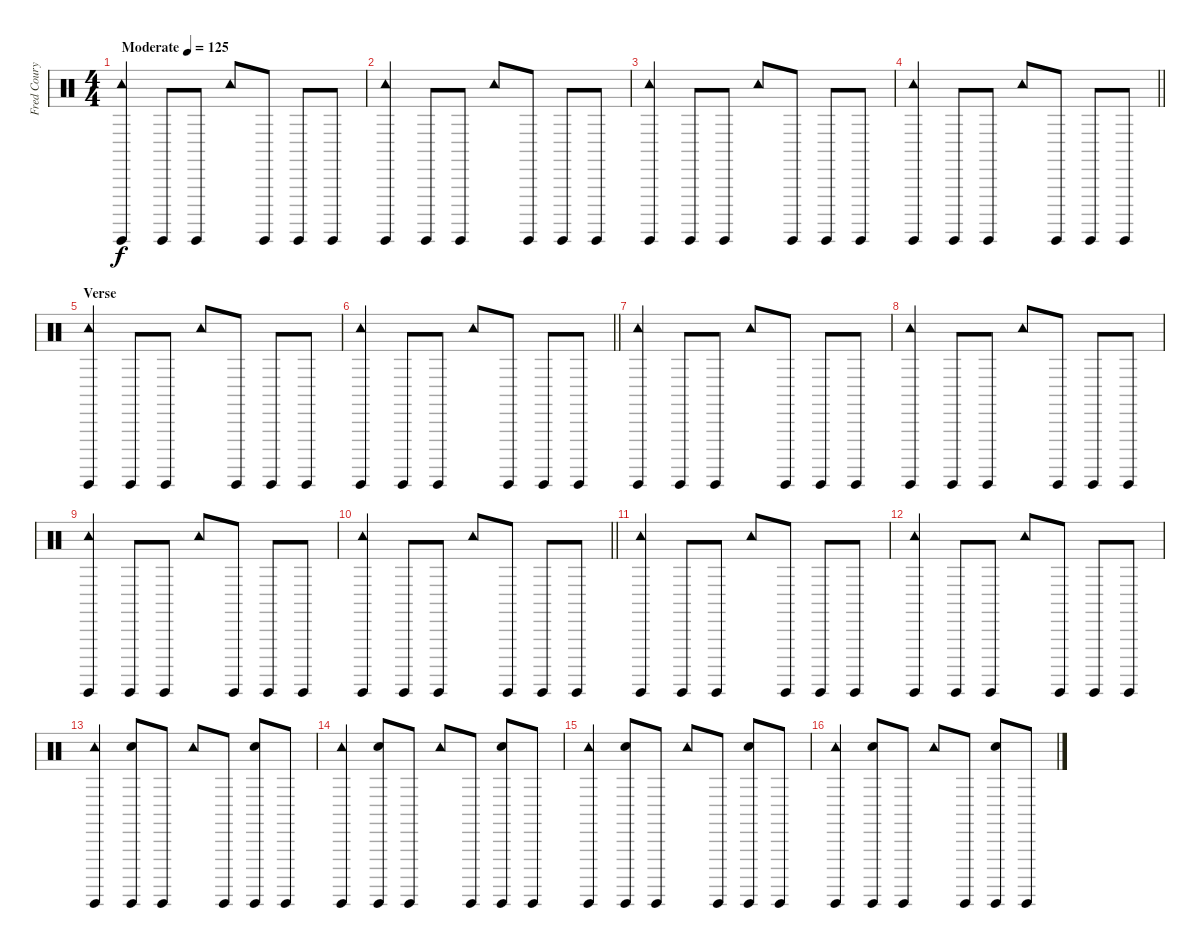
\track ("Fred Coury - Drums" "Fred Coury") {instrument percussion}
\staff {score}
\articulation defaults
\ts (4 4)
\tempo (125 "Moderate")
\clef neutral
\ks c
("Tambourine (hit)" "Guiro (hit)").4{dy f} "Guiro (hit)".8 "Guiro (hit)".8 "Tambourine (hit)".8 "Guiro (hit)".8 "Guiro (hit)".8 "Guiro (hit)".8 |
("Tambourine (hit)" "Guiro (hit)").4 "Guiro (hit)".8 "Guiro (hit)".8 "Tambourine (hit)".8 "Guiro (hit)".8 "Guiro (hit)".8 "Guiro (hit)".8 |
("Tambourine (hit)" "Guiro (hit)").4 "Guiro (hit)".8 "Guiro (hit)".8 "Tambourine (hit)".8 "Guiro (hit)".8 "Guiro (hit)".8 "Guiro (hit)".8 |
\barLineRight lightlight
("Tambourine (hit)" "Guiro (hit)").4 "Guiro (hit)".8 "Guiro (hit)".8 "Tambourine (hit)".8 "Guiro (hit)".8 "Guiro (hit)".8 "Guiro (hit)".8 |
\section ("" "Verse")
("Tambourine (hit)" "Guiro (hit)").4 "Guiro (hit)".8 "Guiro (hit)".8 "Tambourine (hit)".8 "Guiro (hit)".8 "Guiro (hit)".8 "Guiro (hit)".8 |
\barLineRight lightlight
("Tambourine (hit)" "Guiro (hit)").4 "Guiro (hit)".8 "Guiro (hit)".8 "Tambourine (hit)".8 "Guiro (hit)".8 "Guiro (hit)".8 "Guiro (hit)".8 |
("Tambourine (hit)" "Guiro (hit)").4 "Guiro (hit)".8 "Guiro (hit)".8 "Tambourine (hit)".8 "Guiro (hit)".8 "Guiro (hit)".8 "Guiro (hit)".8 |
("Tambourine (hit)" "Guiro (hit)").4 "Guiro (hit)".8 "Guiro (hit)".8 "Tambourine (hit)".8 "Guiro (hit)".8 "Guiro (hit)".8 "Guiro (hit)".8 |
("Tambourine (hit)" "Guiro (hit)").4 "Guiro (hit)".8 "Guiro (hit)".8 "Tambourine (hit)".8 "Guiro (hit)".8 "Guiro (hit)".8 "Guiro (hit)".8 |
\barLineRight lightlight
("Tambourine (hit)" "Guiro (hit)").4 "Guiro (hit)".8 "Guiro (hit)".8 "Tambourine (hit)".8 "Guiro (hit)".8 "Guiro (hit)".8 "Guiro (hit)".8 |
("Tambourine (hit)" "Guiro (hit)").4 "Guiro (hit)".8 "Guiro (hit)".8 "Tambourine (hit)".8 "Guiro (hit)".8 "Guiro (hit)".8 "Guiro (hit)".8 |
("Tambourine (hit)" "Guiro (hit)").4 "Guiro (hit)".8 "Guiro (hit)".8 "Tambourine (hit)".8 "Guiro (hit)".8 "Guiro (hit)".8 "Guiro (hit)".8 |
("Tambourine (hit)" "Guiro (hit)").4 ("Snare (hit) 2" "Guiro (hit)").8 "Guiro (hit)".8 "Tambourine (hit)".8 "Guiro (hit)".8 ("Snare (hit) 2" "Guiro (hit)").8 "Guiro (hit)".8 |
("Tambourine (hit)" "Guiro (hit)").4 ("Snare (hit) 2" "Guiro (hit)").8 "Guiro (hit)".8 "Tambourine (hit)".8 "Guiro (hit)".8 ("Snare (hit) 2" "Guiro (hit)").8 "Guiro (hit)".8 |
("Tambourine (hit)" "Guiro (hit)").4 ("Snare (hit) 2" "Guiro (hit)").8 "Guiro (hit)".8 "Tambourine (hit)".8 "Guiro (hit)".8 ("Snare (hit) 2" "Guiro (hit)").8 "Guiro (hit)".8 |
("Tambourine (hit)" "Guiro (hit)").4 ("Snare (hit) 2" "Guiro (hit)").8 "Guiro (hit)".8 "Tambourine (hit)".8 "Guiro (hit)".8 ("Snare (hit) 2" "Guiro (hit)").8 "Guiro (hit)".8
